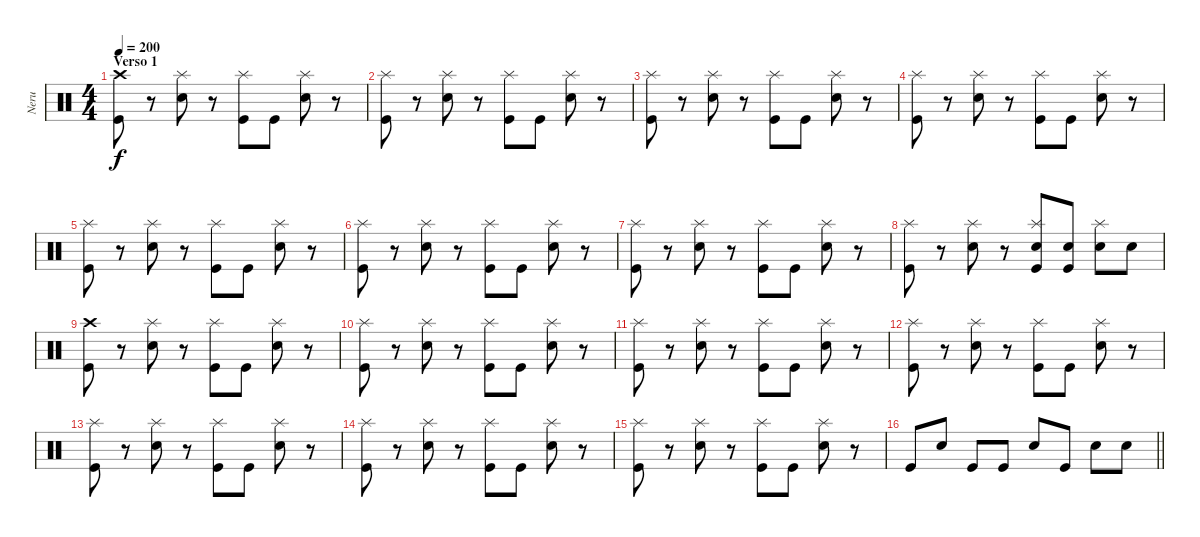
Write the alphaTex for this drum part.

\track ("Neru" "Neru") {instrument percussion}
\staff {score}
\articulation defaults
\ts (4 4)
\section ("" "Verso 1")
\tempo 200
\clef neutral
\ks c
("Crash high (hit)" "Kick (hit)").8{dy f} r.8 ("Splash (hit)" "Electric Snare (hit)").8 r.8 ("Splash (hit)" "Kick (hit)").8 "Kick (hit)".8 ("Splash (hit)" "Electric Snare (hit)").8 r.8 |
("Splash (hit)" "Kick (hit)").8 r.8 ("Splash (hit)" "Electric Snare (hit)").8 r.8 ("Splash (hit)" "Kick (hit)").8 "Kick (hit)".8 ("Splash (hit)" "Electric Snare (hit)").8 r.8 |
("Splash (hit)" "Kick (hit)").8 r.8 ("Splash (hit)" "Electric Snare (hit)").8 r.8 ("Splash (hit)" "Kick (hit)").8 "Kick (hit)".8 ("Splash (hit)" "Electric Snare (hit)").8 r.8 |
("Splash (hit)" "Kick (hit)").8 r.8 ("Splash (hit)" "Electric Snare (hit)").8 r.8 ("Splash (hit)" "Kick (hit)").8 "Kick (hit)".8 ("Splash (hit)" "Electric Snare (hit)").8 r.8 |
("Splash (hit)" "Kick (hit)").8 r.8 ("Splash (hit)" "Electric Snare (hit)").8 r.8 ("Splash (hit)" "Kick (hit)").8 "Kick (hit)".8 ("Splash (hit)" "Electric Snare (hit)").8 r.8 |
("Splash (hit)" "Kick (hit)").8 r.8 ("Splash (hit)" "Electric Snare (hit)").8 r.8 ("Splash (hit)" "Kick (hit)").8 "Kick (hit)".8 ("Splash (hit)" "Electric Snare (hit)").8 r.8 |
("Splash (hit)" "Kick (hit)").8 r.8 ("Splash (hit)" "Electric Snare (hit)").8 r.8 ("Splash (hit)" "Kick (hit)").8 "Kick (hit)".8 ("Splash (hit)" "Electric Snare (hit)").8 r.8 |
("Splash (hit)" "Kick (hit)").8 r.8 ("Splash (hit)" "Electric Snare (hit)").8 r.8 ("Splash (hit)" "Electric Snare (hit)" "Kick (hit)").8 ("Electric Snare (hit)" "Kick (hit)").8 ("Splash (hit)" "Electric Snare (hit)").8 "Electric Snare (hit)".8 |
("Crash high (hit)" "Kick (hit)").8 r.8 ("Splash (hit)" "Electric Snare (hit)").8 r.8 ("Splash (hit)" "Kick (hit)").8 "Kick (hit)".8 ("Splash (hit)" "Electric Snare (hit)").8 r.8 |
("Splash (hit)" "Kick (hit)").8 r.8 ("Splash (hit)" "Electric Snare (hit)").8 r.8 ("Splash (hit)" "Kick (hit)").8 "Kick (hit)".8 ("Splash (hit)" "Electric Snare (hit)").8 r.8 |
("Splash (hit)" "Kick (hit)").8 r.8 ("Splash (hit)" "Electric Snare (hit)").8 r.8 ("Splash (hit)" "Kick (hit)").8 "Kick (hit)".8 ("Splash (hit)" "Electric Snare (hit)").8 r.8 |
("Splash (hit)" "Kick (hit)").8 r.8 ("Splash (hit)" "Electric Snare (hit)").8 r.8 ("Splash (hit)" "Kick (hit)").8 "Kick (hit)".8 ("Splash (hit)" "Electric Snare (hit)").8 r.8 |
("Splash (hit)" "Kick (hit)").8 r.8 ("Splash (hit)" "Electric Snare (hit)").8 r.8 ("Splash (hit)" "Kick (hit)").8 "Kick (hit)".8 ("Splash (hit)" "Electric Snare (hit)").8 r.8 |
("Splash (hit)" "Kick (hit)").8 r.8 ("Splash (hit)" "Electric Snare (hit)").8 r.8 ("Splash (hit)" "Kick (hit)").8 "Kick (hit)".8 ("Splash (hit)" "Electric Snare (hit)").8 r.8 |
("Splash (hit)" "Kick (hit)").8 r.8 ("Splash (hit)" "Electric Snare (hit)").8 r.8 ("Splash (hit)" "Kick (hit)").8 "Kick (hit)".8 ("Splash (hit)" "Electric Snare (hit)").8 r.8 |
\barLineRight lightlight "Kick (hit)".8 "Electric Snare (hit)".8 "Kick (hit)".8 "Kick (hit)".8 "Electric Snare (hit)".8 "Kick (hit)".8 "Electric Snare (hit)".8 "Electric Snare (hit)".8
